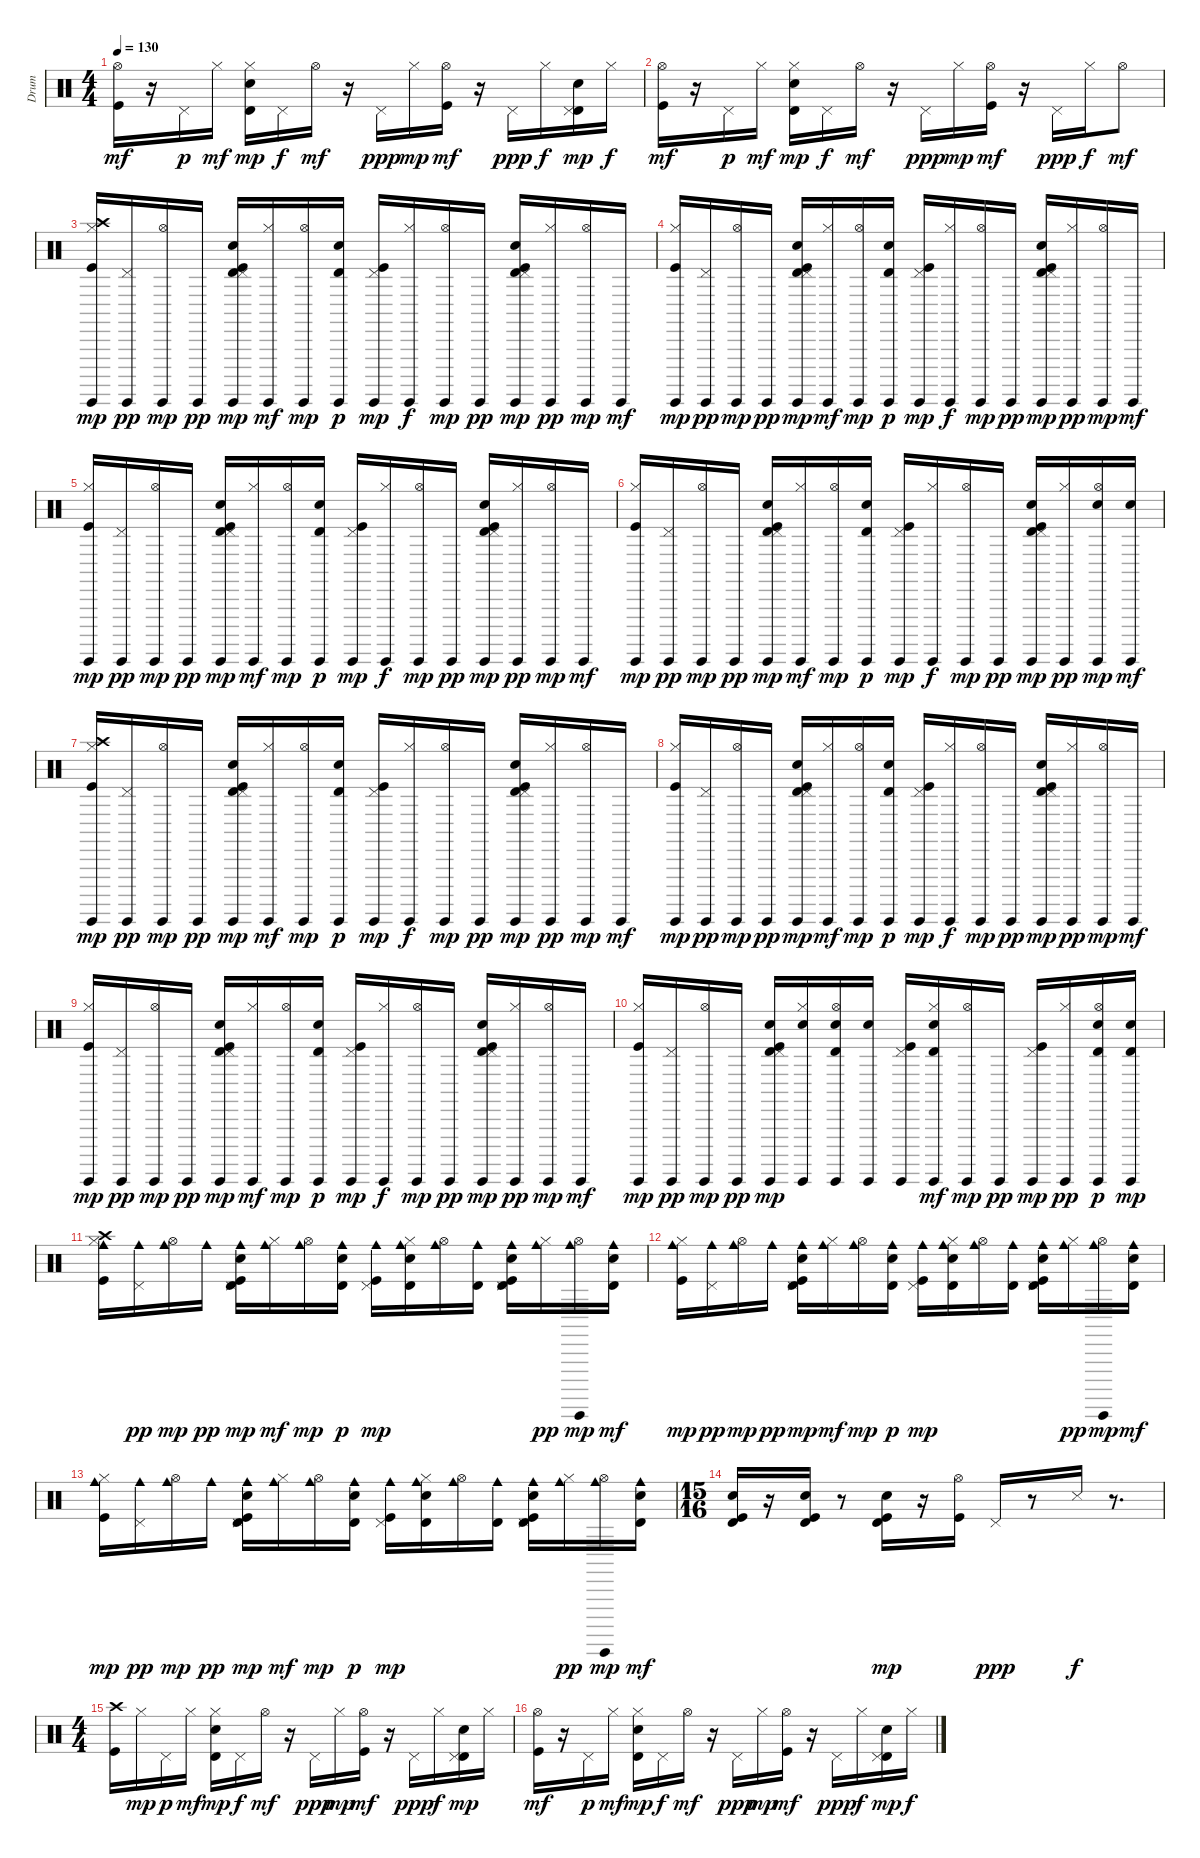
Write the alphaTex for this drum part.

\track ("Drum" "Drum") {instrument percussion}
\staff {score}
\articulation defaults
\ts (4 4)
\tempo 130
\clef neutral
\ks c
("Hi-Hat (open)" "Kick (hit)").16{dy mf} r.16 "Pedal Hi-Hat (hit)".16{dy p} "Hi-Hat (closed)".16{dy mf} ("Timbale high (hit)" "Electric Snare (hit)" "Hi-Hat (closed)").16{dy mp} "Pedal Hi-Hat (hit)".16{dy f} "Hi-Hat (open)".16{dy mf} r.16 "Pedal Hi-Hat (hit)".16{dy ppp} "Hi-Hat (closed)".16{dy mp} ("Hi-Hat (open)" "Kick (hit)").16{dy mf} r.16 "Pedal Hi-Hat (hit)".16{dy ppp} "Hi-Hat (closed)".16{dy f} ("Timbale high (hit)" "Electric Snare (hit)" "Pedal Hi-Hat (hit)").16{dy mp} "Hi-Hat (closed)".16{dy f} |
("Hi-Hat (open)" "Kick (hit)").16{dy mf} r.16 "Pedal Hi-Hat (hit)".16{dy p} "Hi-Hat (closed)".16{dy mf} ("Timbale high (hit)" "Electric Snare (hit)" "Hi-Hat (closed)").16{dy mp} "Pedal Hi-Hat (hit)".16{dy f} "Hi-Hat (open)".16{dy mf} r.16 "Pedal Hi-Hat (hit)".16{dy ppp} "Hi-Hat (closed)".16{dy mp} ("Hi-Hat (open)" "Kick (hit)").16{dy mf} r.16 "Pedal Hi-Hat (hit)".16{dy ppp} "Hi-Hat (closed)".16{dy f} "Hi-Hat (open)".8{dy mf} |
("Guiro (hit)" "Crash high (hit)" "Hi-Hat (closed)" "Kick (hit)").16{dy mp} ("Guiro (hit)" "Pedal Hi-Hat (hit)").16{dy pp} ("Guiro (hit)" "Hi-Hat (open)").16{dy mp} "Guiro (hit)".16{dy pp} ("Guiro (hit)" "Electric Snare (hit)" "Timbale high (hit)" "Pedal Hi-Hat (hit)" "Kick (hit)").16{dy mp} ("Guiro (hit)" "Hi-Hat (closed)").16{dy mf} ("Guiro (hit)" "Hi-Hat (open)").16{dy mp} ("Guiro (hit)" "Electric Snare (hit)" "Timbale high (hit)").16{dy p} ("Guiro (hit)" "Pedal Hi-Hat (hit)" "Kick (hit)").16{dy mp} ("Guiro (hit)" "Hi-Hat (closed)").16{dy f} ("Guiro (hit)" "Hi-Hat (open)").16{dy mp} "Guiro (hit)".16{dy pp} ("Guiro (hit)" "Electric Snare (hit)" "Timbale high (hit)" "Pedal Hi-Hat (hit)" "Kick (hit)").16{dy mp} ("Guiro (hit)" "Hi-Hat (closed)").16{dy pp} ("Guiro (hit)" "Hi-Hat (open)").16{dy mp} "Guiro (hit)".16{dy mf} |
("Guiro (hit)" "Hi-Hat (closed)" "Kick (hit)").16{dy mp} ("Guiro (hit)" "Pedal Hi-Hat (hit)").16{dy pp} ("Guiro (hit)" "Hi-Hat (open)").16{dy mp} "Guiro (hit)".16{dy pp} ("Guiro (hit)" "Electric Snare (hit)" "Timbale high (hit)" "Pedal Hi-Hat (hit)" "Kick (hit)").16{dy mp} ("Guiro (hit)" "Hi-Hat (closed)").16{dy mf} ("Guiro (hit)" "Hi-Hat (open)").16{dy mp} ("Guiro (hit)" "Electric Snare (hit)" "Timbale high (hit)").16{dy p} ("Guiro (hit)" "Pedal Hi-Hat (hit)" "Kick (hit)").16{dy mp} ("Guiro (hit)" "Hi-Hat (closed)").16{dy f} ("Guiro (hit)" "Hi-Hat (open)").16{dy mp} "Guiro (hit)".16{dy pp} ("Guiro (hit)" "Electric Snare (hit)" "Timbale high (hit)" "Pedal Hi-Hat (hit)" "Kick (hit)").16{dy mp} ("Guiro (hit)" "Hi-Hat (closed)").16{dy pp} ("Guiro (hit)" "Hi-Hat (open)").16{dy mp} "Guiro (hit)".16{dy mf} |
("Guiro (hit)" "Hi-Hat (closed)" "Kick (hit)").16{dy mp} ("Guiro (hit)" "Pedal Hi-Hat (hit)").16{dy pp} ("Guiro (hit)" "Hi-Hat (open)").16{dy mp} "Guiro (hit)".16{dy pp} ("Guiro (hit)" "Electric Snare (hit)" "Timbale high (hit)" "Pedal Hi-Hat (hit)" "Kick (hit)").16{dy mp} ("Guiro (hit)" "Hi-Hat (closed)").16{dy mf} ("Guiro (hit)" "Hi-Hat (open)").16{dy mp} ("Guiro (hit)" "Electric Snare (hit)" "Timbale high (hit)").16{dy p} ("Guiro (hit)" "Pedal Hi-Hat (hit)" "Kick (hit)").16{dy mp} ("Guiro (hit)" "Hi-Hat (closed)").16{dy f} ("Guiro (hit)" "Hi-Hat (open)").16{dy mp} "Guiro (hit)".16{dy pp} ("Guiro (hit)" "Electric Snare (hit)" "Timbale high (hit)" "Pedal Hi-Hat (hit)" "Kick (hit)").16{dy mp} ("Guiro (hit)" "Hi-Hat (closed)").16{dy pp} ("Guiro (hit)" "Hi-Hat (open)").16{dy mp} "Guiro (hit)".16{dy mf} |
("Guiro (hit)" "Hi-Hat (closed)" "Kick (hit)").16{dy mp} ("Guiro (hit)" "Pedal Hi-Hat (hit)").16{dy pp} ("Guiro (hit)" "Hi-Hat (open)").16{dy mp} "Guiro (hit)".16{dy pp} ("Guiro (hit)" "Electric Snare (hit)" "Timbale high (hit)" "Pedal Hi-Hat (hit)" "Kick (hit)").16{dy mp} ("Guiro (hit)" "Hi-Hat (closed)").16{dy mf} ("Guiro (hit)" "Hi-Hat (open)").16{dy mp} ("Guiro (hit)" "Electric Snare (hit)" "Timbale high (hit)").16{dy p} ("Guiro (hit)" "Pedal Hi-Hat (hit)" "Kick (hit)").16{dy mp} ("Guiro (hit)" "Hi-Hat (closed)").16{dy f} ("Guiro (hit)" "Hi-Hat (open)").16{dy mp} "Guiro (hit)".16{dy pp} ("Guiro (hit)" "Electric Snare (hit)" "Timbale high (hit)" "Pedal Hi-Hat (hit)" "Kick (hit)").16{dy mp} ("Guiro (hit)" "Hi-Hat (closed)").16{dy pp} ("Guiro (hit)" "Electric Snare (hit)" "Hi-Hat (open)").16{dy mp} ("Guiro (hit)" "Electric Snare (hit)").16{dy mf} |
("Guiro (hit)" "Crash high (hit)" "Hi-Hat (closed)" "Kick (hit)").16{dy mp} ("Guiro (hit)" "Pedal Hi-Hat (hit)").16{dy pp} ("Guiro (hit)" "Hi-Hat (open)").16{dy mp} "Guiro (hit)".16{dy pp} ("Guiro (hit)" "Electric Snare (hit)" "Timbale high (hit)" "Pedal Hi-Hat (hit)" "Kick (hit)").16{dy mp} ("Guiro (hit)" "Hi-Hat (closed)").16{dy mf} ("Guiro (hit)" "Hi-Hat (open)").16{dy mp} ("Guiro (hit)" "Electric Snare (hit)" "Timbale high (hit)").16{dy p} ("Guiro (hit)" "Pedal Hi-Hat (hit)" "Kick (hit)").16{dy mp} ("Guiro (hit)" "Hi-Hat (closed)").16{dy f} ("Guiro (hit)" "Hi-Hat (open)").16{dy mp} "Guiro (hit)".16{dy pp} ("Guiro (hit)" "Electric Snare (hit)" "Timbale high (hit)" "Pedal Hi-Hat (hit)" "Kick (hit)").16{dy mp} ("Guiro (hit)" "Hi-Hat (closed)").16{dy pp} ("Guiro (hit)" "Hi-Hat (open)").16{dy mp} "Guiro (hit)".16{dy mf} |
("Guiro (hit)" "Hi-Hat (closed)" "Kick (hit)").16{dy mp} ("Guiro (hit)" "Pedal Hi-Hat (hit)").16{dy pp} ("Guiro (hit)" "Hi-Hat (open)").16{dy mp} "Guiro (hit)".16{dy pp} ("Guiro (hit)" "Electric Snare (hit)" "Timbale high (hit)" "Pedal Hi-Hat (hit)" "Kick (hit)").16{dy mp} ("Guiro (hit)" "Hi-Hat (closed)").16{dy mf} ("Guiro (hit)" "Hi-Hat (open)").16{dy mp} ("Guiro (hit)" "Electric Snare (hit)" "Timbale high (hit)").16{dy p} ("Guiro (hit)" "Pedal Hi-Hat (hit)" "Kick (hit)").16{dy mp} ("Guiro (hit)" "Hi-Hat (closed)").16{dy f} ("Guiro (hit)" "Hi-Hat (open)").16{dy mp} "Guiro (hit)".16{dy pp} ("Guiro (hit)" "Electric Snare (hit)" "Timbale high (hit)" "Pedal Hi-Hat (hit)" "Kick (hit)").16{dy mp} ("Guiro (hit)" "Hi-Hat (closed)").16{dy pp} ("Guiro (hit)" "Hi-Hat (open)").16{dy mp} "Guiro (hit)".16{dy mf} |
("Guiro (hit)" "Hi-Hat (closed)" "Kick (hit)").16{dy mp} ("Guiro (hit)" "Pedal Hi-Hat (hit)").16{dy pp} ("Guiro (hit)" "Hi-Hat (open)").16{dy mp} "Guiro (hit)".16{dy pp} ("Guiro (hit)" "Electric Snare (hit)" "Timbale high (hit)" "Pedal Hi-Hat (hit)" "Kick (hit)").16{dy mp} ("Guiro (hit)" "Hi-Hat (closed)").16{dy mf} ("Guiro (hit)" "Hi-Hat (open)").16{dy mp} ("Guiro (hit)" "Electric Snare (hit)" "Timbale high (hit)").16{dy p} ("Guiro (hit)" "Pedal Hi-Hat (hit)" "Kick (hit)").16{dy mp} ("Guiro (hit)" "Hi-Hat (closed)").16{dy f} ("Guiro (hit)" "Hi-Hat (open)").16{dy mp} "Guiro (hit)".16{dy pp} ("Guiro (hit)" "Electric Snare (hit)" "Timbale high (hit)" "Pedal Hi-Hat (hit)" "Kick (hit)").16{dy mp} ("Guiro (hit)" "Hi-Hat (closed)").16{dy pp} ("Guiro (hit)" "Hi-Hat (open)").16{dy mp} "Guiro (hit)".16{dy mf} |
("Guiro (hit)" "Hi-Hat (closed)" "Kick (hit)").16{dy mp} ("Guiro (hit)" "Pedal Hi-Hat (hit)").16{dy pp} ("Guiro (hit)" "Hi-Hat (open)").16{dy mp} "Guiro (hit)".16{dy pp} ("Guiro (hit)" "Electric Snare (hit)" "Timbale high (hit)" "Pedal Hi-Hat (hit)" "Kick (hit)").16{dy mp} ("Guiro (hit)" "Electric Snare (hit)" "Hi-Hat (closed)").16 ("Guiro (hit)" "Electric Snare (hit)" "Timbale high (hit)" "Hi-Hat (open)").16 ("Guiro (hit)" "Electric Snare (hit)").16 ("Guiro (hit)" "Pedal Hi-Hat (hit)" "Kick (hit)").16 ("Guiro (hit)" "Electric Snare (hit)" "Timbale high (hit)" "Hi-Hat (closed)").16{dy mf} ("Guiro (hit)" "Hi-Hat (open)").16{dy mp} "Guiro (hit)".16{dy pp} ("Guiro (hit)" "Pedal Hi-Hat (hit)" "Kick (hit)").16{dy mp} ("Guiro (hit)" "Hi-Hat (closed)").16{dy pp} ("Guiro (hit)" "Electric Snare (hit)" "Timbale high (hit)" "Hi-Hat (open)").16{dy p} ("Guiro (hit)" "Electric Snare (hit)" "Timbale high (hit)").16{dy mp} |
("Crash high (hit)" "Cowbell medium (hit)" "Hi-Hat (closed)" "Kick (hit)").16 ("Cowbell medium (hit)" "Pedal Hi-Hat (hit)").16{dy pp} ("Cowbell medium (hit)" "Hi-Hat (open)").16{dy mp} "Cowbell medium (hit)".16{dy pp} ("Cowbell medium (hit)" "Electric Snare (hit)" "Timbale high (hit)" "Pedal Hi-Hat (hit)" "Kick (hit)").16{dy mp} ("Cowbell medium (hit)" "Hi-Hat (closed)").16{dy mf} ("Cowbell medium (hit)" "Hi-Hat (open)").16{dy mp} ("Cowbell medium (hit)" "Electric Snare (hit)" "Timbale high (hit)").16{dy p} ("Cowbell medium (hit)" "Pedal Hi-Hat (hit)" "Kick (hit)").16{dy mp} ("Cowbell medium (hit)" "Electric Snare (hit)" "Timbale high (hit)" "Hi-Hat (closed)").16 ("Cowbell medium (hit)" "Hi-Hat (open)").16 ("Cowbell medium (hit)" "Timbale high (hit)").16 ("Cowbell medium (hit)" "Electric Snare (hit)" "Timbale high (hit)" "Pedal Hi-Hat (hit)" "Kick (hit)").16 ("Cowbell medium (hit)" "Hi-Hat (closed)").16{dy pp} ("Cowbell medium (hit)" "Guiro (hit)" "Hi-Hat (open)").16{dy mp} ("Cowbell medium (hit)" "Electric Snare (hit)" "Timbale high (hit)").16{dy mf} |
("Cowbell medium (hit)" "Hi-Hat (closed)" "Kick (hit)").16{dy mp} ("Cowbell medium (hit)" "Pedal Hi-Hat (hit)").16{dy pp} ("Cowbell medium (hit)" "Hi-Hat (open)").16{dy mp} "Cowbell medium (hit)".16{dy pp} ("Cowbell medium (hit)" "Electric Snare (hit)" "Timbale high (hit)" "Pedal Hi-Hat (hit)" "Kick (hit)").16{dy mp} ("Cowbell medium (hit)" "Hi-Hat (closed)").16{dy mf} ("Cowbell medium (hit)" "Hi-Hat (open)").16{dy mp} ("Cowbell medium (hit)" "Electric Snare (hit)" "Timbale high (hit)").16{dy p} ("Cowbell medium (hit)" "Pedal Hi-Hat (hit)" "Kick (hit)").16{dy mp} ("Cowbell medium (hit)" "Electric Snare (hit)" "Timbale high (hit)" "Hi-Hat (closed)").16 ("Cowbell medium (hit)" "Hi-Hat (open)").16 ("Cowbell medium (hit)" "Timbale high (hit)").16 ("Cowbell medium (hit)" "Electric Snare (hit)" "Timbale high (hit)" "Pedal Hi-Hat (hit)" "Kick (hit)").16 ("Cowbell medium (hit)" "Hi-Hat (closed)").16{dy pp} ("Cowbell medium (hit)" "Guiro (hit)" "Hi-Hat (open)").16{dy mp} ("Cowbell medium (hit)" "Electric Snare (hit)" "Timbale high (hit)").16{dy mf} |
("Cowbell medium (hit)" "Hi-Hat (closed)" "Kick (hit)").16{dy mp} ("Cowbell medium (hit)" "Pedal Hi-Hat (hit)").16{dy pp} ("Cowbell medium (hit)" "Hi-Hat (open)").16{dy mp} "Cowbell medium (hit)".16{dy pp} ("Cowbell medium (hit)" "Electric Snare (hit)" "Timbale high (hit)" "Pedal Hi-Hat (hit)" "Kick (hit)").16{dy mp} ("Cowbell medium (hit)" "Hi-Hat (closed)").16{dy mf} ("Cowbell medium (hit)" "Hi-Hat (open)").16{dy mp} ("Cowbell medium (hit)" "Electric Snare (hit)" "Timbale high (hit)").16{dy p} ("Cowbell medium (hit)" "Pedal Hi-Hat (hit)" "Kick (hit)").16{dy mp} ("Cowbell medium (hit)" "Electric Snare (hit)" "Timbale high (hit)" "Hi-Hat (closed)").16 ("Cowbell medium (hit)" "Hi-Hat (open)").16 ("Cowbell medium (hit)" "Timbale high (hit)").16 ("Cowbell medium (hit)" "Electric Snare (hit)" "Timbale high (hit)" "Pedal Hi-Hat (hit)" "Kick (hit)").16 ("Cowbell medium (hit)" "Hi-Hat (closed)").16{dy pp} ("Cowbell medium (hit)" "Guiro (hit)" "Hi-Hat (open)").16{dy mp} ("Cowbell medium (hit)" "Electric Snare (hit)" "Timbale high (hit)").16{dy mf} |
\ts (15 16)
("Timbale high (hit)" "Electric Snare (hit)" "Kick (hit)").16 r.16 ("Timbale high (hit)" "Electric Snare (hit)" "Kick (hit)").16 r.8 ("Electric Snare (hit)" "Timbale high (hit)" "Kick (hit)").16{dy mp} r.16 ("Hi-Hat (open)" "Kick (hit)").16 "Pedal Hi-Hat (hit)".16{dy ppp} r.8 "Snare (side stick) 3".16{dy f} r.8{d} |
\ts (4 4)
("Crash high (hit)" "Kick (hit)").16 "Hi-Hat (closed)".16{dy mp} "Pedal Hi-Hat (hit)".16{dy p} "Hi-Hat (closed)".16{dy mf} ("Timbale high (hit)" "Electric Snare (hit)" "Hi-Hat (closed)").16{dy mp} "Pedal Hi-Hat (hit)".16{dy f} "Hi-Hat (open)".16{dy mf} r.16 "Pedal Hi-Hat (hit)".16{dy ppp} "Hi-Hat (closed)".16{dy mp} ("Hi-Hat (open)" "Kick (hit)").16{dy mf} r.16 "Pedal Hi-Hat (hit)".16{dy ppp} "Hi-Hat (closed)".16{dy f} ("Timbale high (hit)" "Electric Snare (hit)" "Pedal Hi-Hat (hit)").16{dy mp} "Hi-Hat (closed)".16 |
("Hi-Hat (open)" "Kick (hit)").16{dy mf} r.16 "Pedal Hi-Hat (hit)".16{dy p} "Hi-Hat (closed)".16{dy mf} ("Timbale high (hit)" "Electric Snare (hit)" "Hi-Hat (closed)").16{dy mp} "Pedal Hi-Hat (hit)".16{dy f} "Hi-Hat (open)".16{dy mf} r.16 "Pedal Hi-Hat (hit)".16{dy ppp} "Hi-Hat (closed)".16{dy mp} ("Hi-Hat (open)" "Kick (hit)").16{dy mf} r.16 "Pedal Hi-Hat (hit)".16{dy ppp} "Hi-Hat (closed)".16{dy f} ("Timbale high (hit)" "Electric Snare (hit)" "Pedal Hi-Hat (hit)").16{dy mp} "Hi-Hat (closed)".16{dy f}
